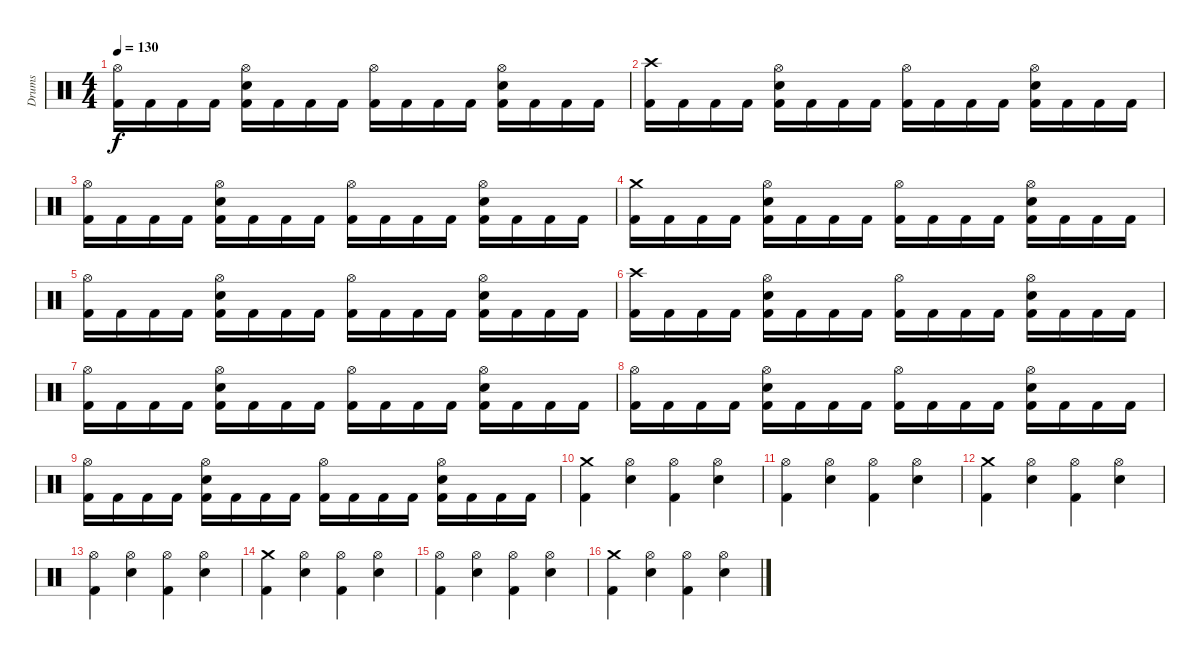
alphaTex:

\track ("Drums" "Drums") {instrument percussion}
\staff {score}
\articulation defaults
\ts (4 4)
\tempo 130
\clef neutral
\ks c
("Hi-Hat (open)" "Kick (hit) 2").16{dy f} "Kick (hit) 2".16 "Kick (hit) 2".16 "Kick (hit) 2".16 ("Hi-Hat (open)" "Electric Snare (hit)" "Kick (hit) 2").16 "Kick (hit) 2".16 "Kick (hit) 2".16 "Kick (hit) 2".16 ("Hi-Hat (open)" "Kick (hit) 2").16 "Kick (hit) 2".16 "Kick (hit) 2".16 "Kick (hit) 2".16 ("Hi-Hat (open)" "Electric Snare (hit)" "Kick (hit) 2").16 "Kick (hit) 2".16 "Kick (hit) 2".16 "Kick (hit) 2".16 |
("Crash high (hit)" "Kick (hit) 2").16 "Kick (hit) 2".16 "Kick (hit) 2".16 "Kick (hit) 2".16 ("Hi-Hat (open)" "Electric Snare (hit)" "Kick (hit) 2").16 "Kick (hit) 2".16 "Kick (hit) 2".16 "Kick (hit) 2".16 ("Hi-Hat (open)" "Kick (hit) 2").16 "Kick (hit) 2".16 "Kick (hit) 2".16 "Kick (hit) 2".16 ("Hi-Hat (open)" "Electric Snare (hit)" "Kick (hit) 2").16 "Kick (hit) 2".16 "Kick (hit) 2".16 "Kick (hit) 2".16 |
("Hi-Hat (open)" "Kick (hit) 2").16 "Kick (hit) 2".16 "Kick (hit) 2".16 "Kick (hit) 2".16 ("Hi-Hat (open)" "Electric Snare (hit)" "Kick (hit) 2").16 "Kick (hit) 2".16 "Kick (hit) 2".16 "Kick (hit) 2".16 ("Hi-Hat (open)" "Kick (hit) 2").16 "Kick (hit) 2".16 "Kick (hit) 2".16 "Kick (hit) 2".16 ("Hi-Hat (open)" "Electric Snare (hit)" "Kick (hit) 2").16 "Kick (hit) 2".16 "Kick (hit) 2".16 "Kick (hit) 2".16 |
("Crash medium (hit)" "Kick (hit) 2").16 "Kick (hit) 2".16 "Kick (hit) 2".16 "Kick (hit) 2".16 ("Hi-Hat (open)" "Electric Snare (hit)" "Kick (hit) 2").16 "Kick (hit) 2".16 "Kick (hit) 2".16 "Kick (hit) 2".16 ("Hi-Hat (open)" "Kick (hit) 2").16 "Kick (hit) 2".16 "Kick (hit) 2".16 "Kick (hit) 2".16 ("Hi-Hat (open)" "Electric Snare (hit)" "Kick (hit) 2").16 "Kick (hit) 2".16 "Kick (hit) 2".16 "Kick (hit) 2".16 |
("Hi-Hat (open)" "Kick (hit) 2").16 "Kick (hit) 2".16 "Kick (hit) 2".16 "Kick (hit) 2".16 ("Hi-Hat (open)" "Electric Snare (hit)" "Kick (hit) 2").16 "Kick (hit) 2".16 "Kick (hit) 2".16 "Kick (hit) 2".16 ("Hi-Hat (open)" "Kick (hit) 2").16 "Kick (hit) 2".16 "Kick (hit) 2".16 "Kick (hit) 2".16 ("Hi-Hat (open)" "Electric Snare (hit)" "Kick (hit) 2").16 "Kick (hit) 2".16 "Kick (hit) 2".16 "Kick (hit) 2".16 |
("Crash high (hit)" "Kick (hit) 2").16 "Kick (hit) 2".16 "Kick (hit) 2".16 "Kick (hit) 2".16 ("Hi-Hat (open)" "Electric Snare (hit)" "Kick (hit) 2").16 "Kick (hit) 2".16 "Kick (hit) 2".16 "Kick (hit) 2".16 ("Hi-Hat (open)" "Kick (hit) 2").16 "Kick (hit) 2".16 "Kick (hit) 2".16 "Kick (hit) 2".16 ("Hi-Hat (open)" "Electric Snare (hit)" "Kick (hit) 2").16 "Kick (hit) 2".16 "Kick (hit) 2".16 "Kick (hit) 2".16 |
("Hi-Hat (open)" "Kick (hit) 2").16 "Kick (hit) 2".16 "Kick (hit) 2".16 "Kick (hit) 2".16 ("Hi-Hat (open)" "Electric Snare (hit)" "Kick (hit) 2").16 "Kick (hit) 2".16 "Kick (hit) 2".16 "Kick (hit) 2".16 ("Hi-Hat (open)" "Kick (hit) 2").16 "Kick (hit) 2".16 "Kick (hit) 2".16 "Kick (hit) 2".16 ("Hi-Hat (open)" "Electric Snare (hit)" "Kick (hit) 2").16 "Kick (hit) 2".16 "Kick (hit) 2".16 "Kick (hit) 2".16 |
("Hi-Hat (open)" "Kick (hit) 2").16 "Kick (hit) 2".16 "Kick (hit) 2".16 "Kick (hit) 2".16 ("Hi-Hat (open)" "Electric Snare (hit)" "Kick (hit) 2").16 "Kick (hit) 2".16 "Kick (hit) 2".16 "Kick (hit) 2".16 ("Hi-Hat (open)" "Kick (hit) 2").16 "Kick (hit) 2".16 "Kick (hit) 2".16 "Kick (hit) 2".16 ("Hi-Hat (open)" "Electric Snare (hit)" "Kick (hit) 2").16 "Kick (hit) 2".16 "Kick (hit) 2".16 "Kick (hit) 2".16 |
("Hi-Hat (open)" "Kick (hit) 2").16 "Kick (hit) 2".16 "Kick (hit) 2".16 "Kick (hit) 2".16 ("Hi-Hat (open)" "Electric Snare (hit)" "Kick (hit) 2").16 "Kick (hit) 2".16 "Kick (hit) 2".16 "Kick (hit) 2".16 ("Hi-Hat (open)" "Kick (hit) 2").16 "Kick (hit) 2".16 "Kick (hit) 2".16 "Kick (hit) 2".16 ("Hi-Hat (open)" "Electric Snare (hit)" "Kick (hit) 2").16 "Kick (hit) 2".16 "Kick (hit) 2".16 "Kick (hit) 2".16 |
("Crash medium (hit)" "Kick (hit) 2").4 ("Hi-Hat (open)" "Electric Snare (hit)").4 ("Hi-Hat (open)" "Kick (hit) 2").4 ("Hi-Hat (open)" "Electric Snare (hit)").4 |
("Hi-Hat (open)" "Kick (hit) 2").4 ("Hi-Hat (open)" "Electric Snare (hit)").4 ("Hi-Hat (open)" "Kick (hit) 2").4 ("Hi-Hat (open)" "Electric Snare (hit)").4 |
("Crash medium (hit)" "Kick (hit) 2").4 ("Hi-Hat (open)" "Electric Snare (hit)").4 ("Hi-Hat (open)" "Kick (hit) 2").4 ("Hi-Hat (open)" "Electric Snare (hit)").4 |
("Hi-Hat (open)" "Kick (hit) 2").4 ("Hi-Hat (open)" "Electric Snare (hit)").4 ("Hi-Hat (open)" "Kick (hit) 2").4 ("Hi-Hat (open)" "Electric Snare (hit)").4 |
("Crash medium (hit)" "Kick (hit) 2").4 ("Hi-Hat (open)" "Electric Snare (hit)").4 ("Hi-Hat (open)" "Kick (hit) 2").4 ("Hi-Hat (open)" "Electric Snare (hit)").4 |
("Hi-Hat (open)" "Kick (hit) 2").4 ("Hi-Hat (open)" "Electric Snare (hit)").4 ("Hi-Hat (open)" "Kick (hit) 2").4 ("Hi-Hat (open)" "Electric Snare (hit)").4 |
("Crash medium (hit)" "Kick (hit) 2").4 ("Hi-Hat (open)" "Electric Snare (hit)").4 ("Hi-Hat (open)" "Kick (hit) 2").4 ("Hi-Hat (open)" "Electric Snare (hit)").4
